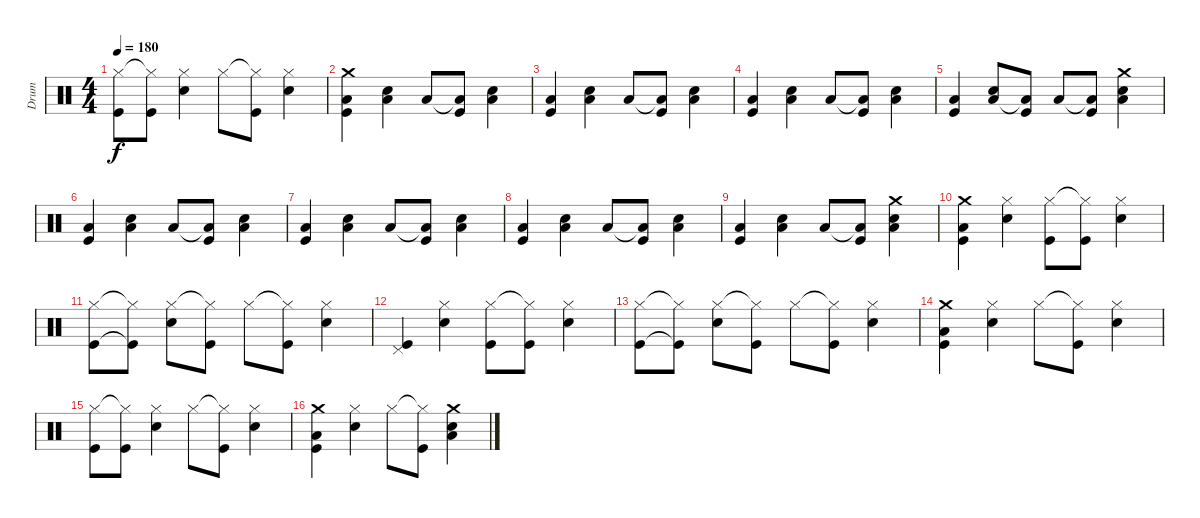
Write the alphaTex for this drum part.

\track ("Drum" "Drum") {instrument percussion}
\staff {score}
\articulation defaults
\ts (4 4)
\tempo 180
\clef neutral
\ks c
("Hi-Hat (closed)" "Kick (hit)").8{dy f} ("Hi-Hat (closed)"{t} "Kick (hit)").8 ("Hi-Hat (closed)" "Snare (hit) 2").4 "Hi-Hat (closed)".8 ("Hi-Hat (closed)"{t} "Kick (hit)").8 ("Hi-Hat (closed)" "Snare (hit) 2").4 |
("Low Floor Tom (hit)" "Crash medium (hit)" "Kick (hit)").4 ("Low Floor Tom (hit)" "Snare (hit) 2").4 "Low Floor Tom (hit)".8 ("Low Floor Tom (hit)"{t} "Kick (hit)").8 ("Low Floor Tom (hit)" "Snare (hit) 2").4 |
("Low Floor Tom (hit)" "Kick (hit)").4 ("Low Floor Tom (hit)" "Snare (hit) 2").4 "Low Floor Tom (hit)".8 ("Low Floor Tom (hit)"{t} "Kick (hit)").8 ("Low Floor Tom (hit)" "Snare (hit) 2").4 |
("Low Floor Tom (hit)" "Kick (hit)").4 ("Low Floor Tom (hit)" "Snare (hit) 2").4 "Low Floor Tom (hit)".8 ("Low Floor Tom (hit)"{t} "Kick (hit)").8 ("Low Floor Tom (hit)" "Snare (hit) 2").4 |
("Low Floor Tom (hit)" "Kick (hit)").4 ("Low Floor Tom (hit)" "Snare (hit) 2").8 ("Low Floor Tom (hit)"{t} "Kick (hit)").8 "Low Floor Tom (hit)".8 ("Low Floor Tom (hit)"{t} "Kick (hit)").8 ("Low Floor Tom (hit)" "Snare (hit) 2" "Crash medium (hit)").4 |
("Low Floor Tom (hit)" "Kick (hit)").4 ("Low Floor Tom (hit)" "Snare (hit) 2").4 "Low Floor Tom (hit)".8 ("Low Floor Tom (hit)"{t} "Kick (hit)").8 ("Low Floor Tom (hit)" "Snare (hit) 2").4 |
("Low Floor Tom (hit)" "Kick (hit)").4 ("Low Floor Tom (hit)" "Snare (hit) 2").4 "Low Floor Tom (hit)".8 ("Low Floor Tom (hit)"{t} "Kick (hit)").8 ("Low Floor Tom (hit)" "Snare (hit) 2").4 |
("Low Floor Tom (hit)" "Kick (hit)").4 ("Low Floor Tom (hit)" "Snare (hit) 2").4 "Low Floor Tom (hit)".8 ("Low Floor Tom (hit)"{t} "Kick (hit)").8 ("Low Floor Tom (hit)" "Snare (hit) 2").4 |
("Low Floor Tom (hit)" "Kick (hit)").4 ("Low Floor Tom (hit)" "Snare (hit) 2").4 "Low Floor Tom (hit)".8 ("Low Floor Tom (hit)"{t} "Kick (hit)").8 ("Low Floor Tom (hit)" "Snare (hit) 2" "Crash medium (hit)").4 |
("Low Floor Tom (hit)" "Crash medium (hit)" "Kick (hit)").4 ("Hi-Hat (closed)" "Snare (hit) 2").4 ("Hi-Hat (closed)" "Kick (hit)").8 ("Hi-Hat (closed)"{t} "Kick (hit)").8 ("Hi-Hat (closed)" "Snare (hit) 2").4 |
("Hi-Hat (closed)" "Kick (hit)").8 ("Hi-Hat (closed)"{t} "Kick (hit)"{t}).8 ("Hi-Hat (closed)" "Snare (hit) 2").8 ("Hi-Hat (closed)"{t} "Kick (hit)").8 "Hi-Hat (closed)".8 ("Hi-Hat (closed)"{t} "Kick (hit)").8 ("Hi-Hat (closed)" "Snare (hit) 2").4 |
("Pedal Hi-Hat (hit)" "Kick (hit)").4 ("Hi-Hat (closed)" "Snare (hit) 2").4 ("Hi-Hat (closed)" "Kick (hit)").8 ("Hi-Hat (closed)"{t} "Kick (hit)").8 ("Hi-Hat (closed)" "Snare (hit) 2").4 |
("Hi-Hat (closed)" "Kick (hit)").8 ("Hi-Hat (closed)"{t} "Kick (hit)"{t}).8 ("Hi-Hat (closed)" "Snare (hit) 2").8 ("Hi-Hat (closed)"{t} "Kick (hit)").8 "Hi-Hat (closed)".8 ("Hi-Hat (closed)"{t} "Kick (hit)").8 ("Hi-Hat (closed)" "Snare (hit) 2").4 |
("Low Floor Tom (hit)" "Crash medium (hit)" "Kick (hit)").4 ("Hi-Hat (closed)" "Snare (hit) 2").4 "Hi-Hat (closed)".8 ("Hi-Hat (closed)"{t} "Kick (hit)").8 ("Hi-Hat (closed)" "Snare (hit) 2").4 |
("Hi-Hat (closed)" "Kick (hit)").8 ("Hi-Hat (closed)"{t} "Kick (hit)").8 ("Hi-Hat (closed)" "Snare (hit) 2").4 "Hi-Hat (closed)".8 ("Hi-Hat (closed)"{t} "Kick (hit)").8 ("Hi-Hat (closed)" "Snare (hit) 2").4 |
("Low Floor Tom (hit)" "Crash medium (hit)" "Kick (hit)").4 ("Hi-Hat (closed)" "Snare (hit) 2").4 "Hi-Hat (closed)".8 ("Hi-Hat (closed)"{t} "Kick (hit)").8 ("Low Floor Tom (hit)" "Snare (hit) 2" "Crash medium (hit)").4
